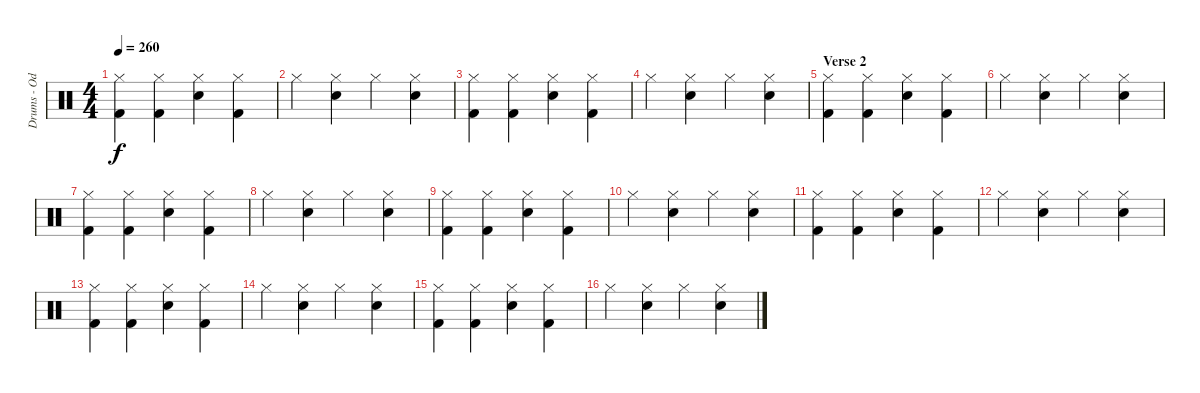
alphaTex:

\track ("Drums - Oded Perach" "Drums - Od") {instrument percussion}
\staff {score}
\articulation defaults
\ts (4 4)
\tempo 260
\clef neutral
\ks c
("Hi-Hat (closed)" "Kick (hit) 2").4{dy f} ("Hi-Hat (closed)" "Kick (hit) 2").4 ("Hi-Hat (closed)" "Snare (hit) 2").4 ("Hi-Hat (closed)" "Kick (hit) 2").4 |
"Hi-Hat (closed)".4 ("Hi-Hat (closed)" "Snare (hit) 2").4 "Hi-Hat (closed)".4 ("Hi-Hat (closed)" "Snare (hit) 2").4 |
("Hi-Hat (closed)" "Kick (hit) 2").4 ("Hi-Hat (closed)" "Kick (hit) 2").4 ("Hi-Hat (closed)" "Snare (hit) 2").4 ("Hi-Hat (closed)" "Kick (hit) 2").4 |
"Hi-Hat (closed)".4 ("Hi-Hat (closed)" "Snare (hit) 2").4 "Hi-Hat (closed)".4 ("Hi-Hat (closed)" "Snare (hit) 2").4 |
\section ("" "Verse 2")
("Hi-Hat (closed)" "Kick (hit) 2").4 ("Hi-Hat (closed)" "Kick (hit) 2").4 ("Hi-Hat (closed)" "Snare (hit) 2").4 ("Hi-Hat (closed)" "Kick (hit) 2").4 |
"Hi-Hat (closed)".4 ("Hi-Hat (closed)" "Snare (hit) 2").4 "Hi-Hat (closed)".4 ("Hi-Hat (closed)" "Snare (hit) 2").4 |
("Hi-Hat (closed)" "Kick (hit) 2").4 ("Hi-Hat (closed)" "Kick (hit) 2").4 ("Hi-Hat (closed)" "Snare (hit) 2").4 ("Hi-Hat (closed)" "Kick (hit) 2").4 |
"Hi-Hat (closed)".4 ("Hi-Hat (closed)" "Snare (hit) 2").4 "Hi-Hat (closed)".4 ("Hi-Hat (closed)" "Snare (hit) 2").4 |
("Hi-Hat (closed)" "Kick (hit) 2").4 ("Hi-Hat (closed)" "Kick (hit) 2").4 ("Hi-Hat (closed)" "Snare (hit) 2").4 ("Hi-Hat (closed)" "Kick (hit) 2").4 |
"Hi-Hat (closed)".4 ("Hi-Hat (closed)" "Snare (hit) 2").4 "Hi-Hat (closed)".4 ("Hi-Hat (closed)" "Snare (hit) 2").4 |
("Hi-Hat (closed)" "Kick (hit) 2").4 ("Hi-Hat (closed)" "Kick (hit) 2").4 ("Hi-Hat (closed)" "Snare (hit) 2").4 ("Hi-Hat (closed)" "Kick (hit) 2").4 |
"Hi-Hat (closed)".4 ("Hi-Hat (closed)" "Snare (hit) 2").4 "Hi-Hat (closed)".4 ("Hi-Hat (closed)" "Snare (hit) 2").4 |
("Hi-Hat (closed)" "Kick (hit) 2").4 ("Hi-Hat (closed)" "Kick (hit) 2").4 ("Hi-Hat (closed)" "Snare (hit) 2").4 ("Hi-Hat (closed)" "Kick (hit) 2").4 |
"Hi-Hat (closed)".4 ("Hi-Hat (closed)" "Snare (hit) 2").4 "Hi-Hat (closed)".4 ("Hi-Hat (closed)" "Snare (hit) 2").4 |
("Hi-Hat (closed)" "Kick (hit) 2").4 ("Hi-Hat (closed)" "Kick (hit) 2").4 ("Hi-Hat (closed)" "Snare (hit) 2").4 ("Hi-Hat (closed)" "Kick (hit) 2").4 |
"Hi-Hat (closed)".4 ("Hi-Hat (closed)" "Snare (hit) 2").4 "Hi-Hat (closed)".4 ("Hi-Hat (closed)" "Snare (hit) 2").4
